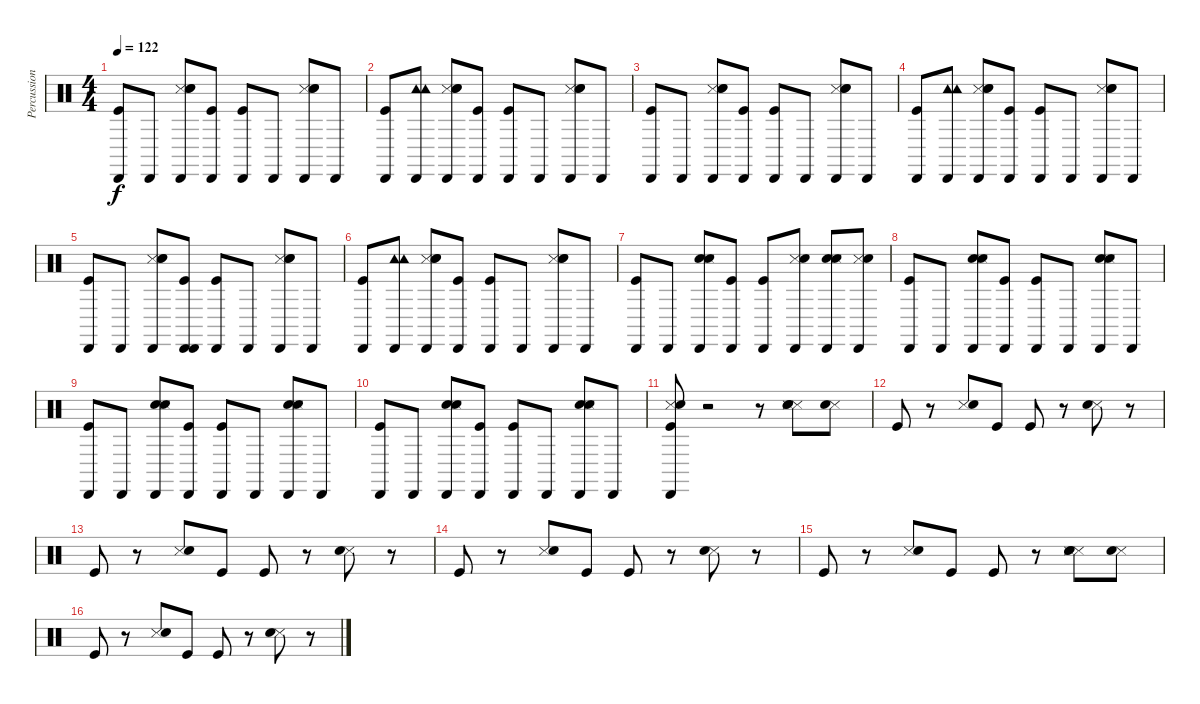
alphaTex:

\track ("Percussion" "Percussion") {instrument percussion}
\staff {score}
\articulation defaults
\ts (4 4)
\tempo 122
\clef neutral
\ks c
("Kick (hit)" "Cabasa (hit)").8{dy f} "Cabasa (hit)".8 ("Snare (side stick) 3" "Cabasa (hit)" "Hand Clap (hit)" "Snare (hit) 2").8 ("Kick (hit)" "Cabasa (hit)").8 ("Kick (hit)" "Cabasa (hit)").8 "Cabasa (hit)".8 ("Snare (side stick) 3" "Cabasa (hit)" "Hand Clap (hit)" "Snare (hit) 2").8 "Cabasa (hit)".8 |
("Kick (hit)" "Cabasa (hit)").8 ("Tambourine (hit)" "Cabasa (hit)" "Tambourine (hit)").8 ("Snare (side stick) 3" "Cabasa (hit)" "Hand Clap (hit)" "Snare (hit) 2").8 ("Kick (hit)" "Cabasa (hit)").8 ("Kick (hit)" "Cabasa (hit)").8 "Cabasa (hit)".8 ("Snare (side stick) 3" "Cabasa (hit)" "Hand Clap (hit)" "Snare (hit) 2").8 "Cabasa (hit)".8 |
("Kick (hit)" "Cabasa (hit)").8 "Cabasa (hit)".8 ("Snare (side stick) 3" "Hand Clap (hit)" "Cabasa (hit)" "Snare (hit) 2").8 ("Kick (hit)" "Cabasa (hit)").8 ("Kick (hit)" "Cabasa (hit)").8 "Cabasa (hit)".8 ("Snare (side stick) 3" "Hand Clap (hit)" "Cabasa (hit)" "Snare (hit) 2").8 "Cabasa (hit)".8 |
("Kick (hit)" "Cabasa (hit)").8 ("Tambourine (hit)" "Cabasa (hit)" "Tambourine (hit)").8 ("Snare (side stick) 3" "Hand Clap (hit)" "Cabasa (hit)" "Snare (hit) 2").8 ("Kick (hit)" "Cabasa (hit)").8 ("Kick (hit)" "Cabasa (hit)").8 "Cabasa (hit)".8 ("Snare (side stick) 3" "Hand Clap (hit)" "Cabasa (hit)" "Snare (hit) 2").8 "Cabasa (hit)".8 |
("Kick (hit)" "Cabasa (hit)").8 "Cabasa (hit)".8 ("Snare (side stick) 3" "Hand Clap (hit)" "Cabasa (hit)" "Snare (hit) 2").8 ("Kick (hit)" "Cabasa (hit)" "Cabasa (hit)").8 ("Kick (hit)" "Cabasa (hit)").8 "Cabasa (hit)".8 ("Snare (side stick) 3" "Hand Clap (hit)" "Cabasa (hit)" "Snare (hit) 2").8 "Cabasa (hit)".8 |
("Kick (hit)" "Cabasa (hit)").8 ("Tambourine (hit)" "Cabasa (hit)" "Tambourine (hit)").8 ("Snare (side stick) 3" "Hand Clap (hit)" "Cabasa (hit)" "Snare (hit) 2").8 ("Kick (hit)" "Cabasa (hit)").8 ("Kick (hit)" "Cabasa (hit)").8 "Cabasa (hit)".8 ("Snare (side stick) 3" "Hand Clap (hit)" "Cabasa (hit)" "Snare (hit) 2").8 "Cabasa (hit)".8 |
("Kick (hit)" "Cabasa (hit)").8 "Cabasa (hit)".8 ("Hand Clap (hit)" "Snare (side stick) 3" "Cabasa (hit)" "Snare (hit) 2").8 ("Kick (hit)" "Cabasa (hit)").8 ("Kick (hit)" "Cabasa (hit)").8 ("Snare (side stick) 3" "Cabasa (hit)" "Snare (hit) 2").8 ("Hand Clap (hit)" "Snare (side stick) 3" "Cabasa (hit)" "Snare (hit) 2").8 ("Snare (side stick) 3" "Cabasa (hit)" "Snare (hit) 2").8 |
("Cabasa (hit)" "Kick (hit)").8 "Cabasa (hit)".8 ("Cabasa (hit)" "Hand Clap (hit)" "Snare (side stick) 3" "Snare (hit) 2").8 ("Cabasa (hit)" "Kick (hit)").8 ("Cabasa (hit)" "Kick (hit)").8 "Cabasa (hit)".8 ("Cabasa (hit)" "Hand Clap (hit)" "Snare (side stick) 3" "Snare (hit) 2").8 "Cabasa (hit)".8 |
("Cabasa (hit)" "Kick (hit)").8 "Cabasa (hit)".8 ("Cabasa (hit)" "Hand Clap (hit)" "Snare (side stick) 3" "Snare (hit) 2").8 ("Cabasa (hit)" "Kick (hit)").8 ("Cabasa (hit)" "Kick (hit)").8 "Cabasa (hit)".8 ("Cabasa (hit)" "Hand Clap (hit)" "Snare (side stick) 3" "Snare (hit) 2").8 "Cabasa (hit)".8 |
("Cabasa (hit)" "Kick (hit)").8 "Cabasa (hit)".8 ("Cabasa (hit)" "Hand Clap (hit)" "Snare (side stick) 3" "Snare (hit) 2").8 ("Cabasa (hit)" "Kick (hit)").8 ("Cabasa (hit)" "Kick (hit)").8 "Cabasa (hit)".8 ("Cabasa (hit)" "Hand Clap (hit)" "Snare (side stick) 3" "Snare (hit) 2").8 "Cabasa (hit)".8 |
("Cabasa (hit)" "Kick (hit)" "Snare (side stick) 3" "Snare (hit) 2").8 r.2 r.8 ("Snare (side stick) 3" "Snare (hit) 2" "Snare (side stick) 3" "Snare (hit) 2").8 ("Snare (side stick) 3" "Snare (hit) 2").8 |
"Kick (hit)".8 r.8 ("Snare (side stick) 3" "Snare (hit) 2").8 "Kick (hit)".8 "Kick (hit)".8 r.8 ("Snare (side stick) 3" "Snare (hit) 2").8 r.8 |
"Kick (hit)".8 r.8 ("Snare (side stick) 3" "Snare (hit) 2").8 "Kick (hit)".8 "Kick (hit)".8 r.8 ("Snare (side stick) 3" "Snare (hit) 2").8 r.8 |
"Kick (hit)".8 r.8 ("Snare (side stick) 3" "Snare (hit) 2").8 "Kick (hit)".8 "Kick (hit)".8 r.8 ("Snare (side stick) 3" "Snare (hit) 2").8 r.8 |
"Kick (hit)".8 r.8 ("Snare (side stick) 3" "Snare (hit) 2").8 "Kick (hit)".8 "Kick (hit)".8 r.8 ("Snare (side stick) 3" "Snare (hit) 2" "Snare (side stick) 3" "Snare (hit) 2").8 ("Snare (side stick) 3" "Snare (hit) 2").8 |
"Kick (hit)".8 r.8 ("Snare (side stick) 3" "Snare (hit) 2").8 "Kick (hit)".8 "Kick (hit)".8 r.8 ("Snare (side stick) 3" "Snare (hit) 2").8 r.8
